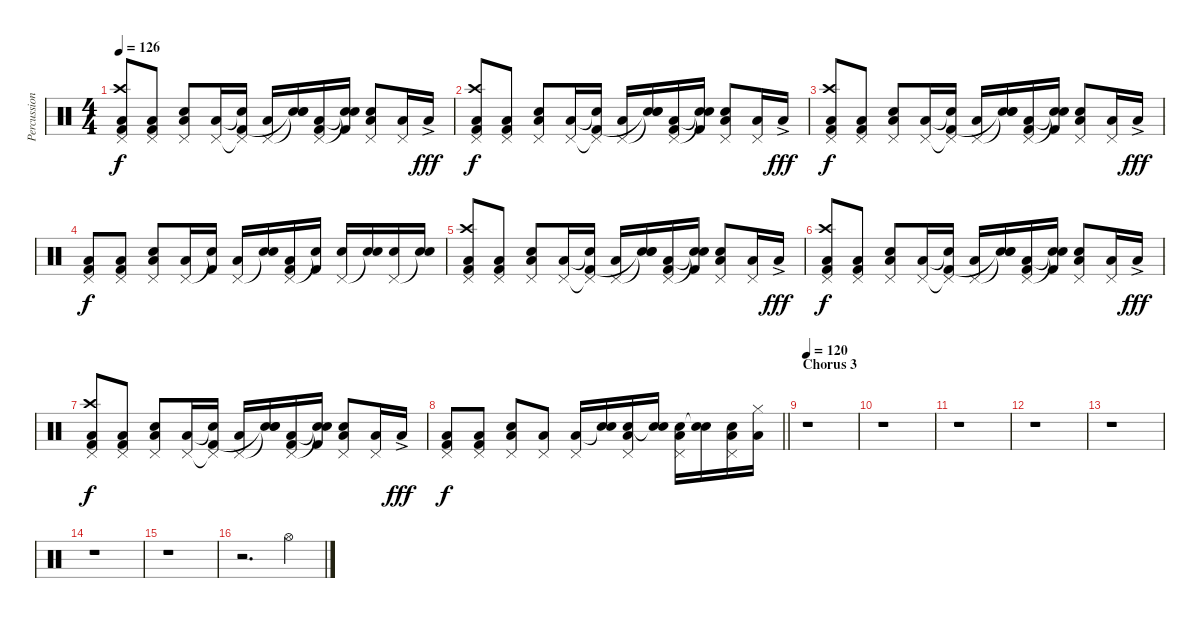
\track ("Percussion" "Percussion") {instrument percussion}
\staff {score}
\articulation defaults
\ts (4 4)
\tempo 126
\clef neutral
\ks c
("Pedal Hi-Hat (hit)" "Crash high (hit)" "Low Floor Tom (hit)" "Kick (hit) 2").8{dy f} ("Pedal Hi-Hat (hit)" "Low Floor Tom (hit)" "Kick (hit) 2").8 ("Pedal Hi-Hat (hit)" "Snare (hit) 2" "Low Floor Tom (hit)").8 ("Pedal Hi-Hat (hit)" "Low Floor Tom (hit)").16 ("Pedal Hi-Hat (hit)"{t} "Snare (hit)"{t} "Kick (hit) 2").16 ("Pedal Hi-Hat (hit)" "Low Floor Tom (hit)").16 ("Snare (hit)"{t} "Snare (hit) 2" "Snare (hit)"{t}).16 ("Pedal Hi-Hat (hit)" "Low Floor Tom (hit)" "Kick (hit) 2").16 ("Snare (hit)"{t} "Snare (hit)"{t} "Kick (hit) 2").16 ("Pedal Hi-Hat (hit)" "Snare (hit) 2" "Low Floor Tom (hit)").8 ("Pedal Hi-Hat (hit)" "Low Floor Tom (hit)").16 "Low Floor Tom (hit)"{ac}.16{dy fff} |
("Pedal Hi-Hat (hit)" "Crash high (hit)" "Low Floor Tom (hit)" "Kick (hit) 2").8{dy f} ("Pedal Hi-Hat (hit)" "Low Floor Tom (hit)" "Kick (hit) 2").8 ("Pedal Hi-Hat (hit)" "Snare (hit) 2" "Low Floor Tom (hit)").8 ("Pedal Hi-Hat (hit)" "Low Floor Tom (hit)").16 ("Pedal Hi-Hat (hit)"{t} "Snare (hit)"{t} "Kick (hit) 2").16 ("Pedal Hi-Hat (hit)" "Low Floor Tom (hit)").16 ("Snare (hit)"{t} "Snare (hit) 2" "Snare (hit)"{t}).16 ("Pedal Hi-Hat (hit)" "Low Floor Tom (hit)" "Kick (hit) 2").16 ("Snare (hit)"{t} "Snare (hit)"{t} "Kick (hit) 2").16 ("Pedal Hi-Hat (hit)" "Snare (hit) 2" "Low Floor Tom (hit)").8 ("Pedal Hi-Hat (hit)" "Low Floor Tom (hit)").16 "Low Floor Tom (hit)"{ac}.16{dy fff} |
("Pedal Hi-Hat (hit)" "Crash high (hit)" "Low Floor Tom (hit)" "Kick (hit) 2").8{dy f} ("Pedal Hi-Hat (hit)" "Low Floor Tom (hit)" "Kick (hit) 2").8 ("Pedal Hi-Hat (hit)" "Snare (hit) 2" "Low Floor Tom (hit)").8 ("Pedal Hi-Hat (hit)" "Low Floor Tom (hit)").16 ("Pedal Hi-Hat (hit)"{t} "Snare (hit)"{t} "Kick (hit) 2").16 ("Pedal Hi-Hat (hit)" "Low Floor Tom (hit)").16 ("Snare (hit)"{t} "Snare (hit) 2" "Snare (hit)"{t}).16 ("Pedal Hi-Hat (hit)" "Low Floor Tom (hit)" "Kick (hit) 2").16 ("Snare (hit)"{t} "Snare (hit)"{t} "Kick (hit) 2").16 ("Pedal Hi-Hat (hit)" "Snare (hit) 2" "Low Floor Tom (hit)").8 ("Pedal Hi-Hat (hit)" "Low Floor Tom (hit)").16 "Low Floor Tom (hit)"{ac}.16{dy fff} |
("Pedal Hi-Hat (hit)" "Low Floor Tom (hit)" "Kick (hit) 2").8{dy f} ("Pedal Hi-Hat (hit)" "Low Floor Tom (hit)" "Kick (hit) 2").8 ("Pedal Hi-Hat (hit)" "Snare (hit) 2" "Low Floor Tom (hit)").8 ("Pedal Hi-Hat (hit)" "Low Floor Tom (hit)").16 ("Snare (hit)"{t} "Kick (hit) 2").16 ("Pedal Hi-Hat (hit)" "Low Floor Tom (hit)").16 ("Snare (hit)"{t} "Snare (hit) 2").16 ("Pedal Hi-Hat (hit)" "Low Floor Tom (hit)" "Kick (hit) 2").16 ("Snare (hit)"{t} "Kick (hit) 2").16 ("Pedal Hi-Hat (hit)" "Snare (hit) 2").16 ("Snare (hit)"{t} "Snare (hit) 2").16 ("Pedal Hi-Hat (hit)" "Snare (hit) 2").16 ("Snare (hit)"{t} "Snare (hit) 2").16 |
("Pedal Hi-Hat (hit)" "Crash high (hit)" "Low Floor Tom (hit)" "Kick (hit) 2").8 ("Pedal Hi-Hat (hit)" "Low Floor Tom (hit)" "Kick (hit) 2").8 ("Pedal Hi-Hat (hit)" "Snare (hit) 2" "Low Floor Tom (hit)").8 ("Pedal Hi-Hat (hit)" "Low Floor Tom (hit)").16 ("Pedal Hi-Hat (hit)"{t} "Snare (hit)"{t} "Kick (hit) 2").16 ("Pedal Hi-Hat (hit)" "Low Floor Tom (hit)").16 ("Snare (hit)"{t} "Snare (hit) 2" "Snare (hit)"{t}).16 ("Pedal Hi-Hat (hit)" "Low Floor Tom (hit)" "Kick (hit) 2").16 ("Snare (hit)"{t} "Snare (hit)"{t} "Kick (hit) 2").16 ("Pedal Hi-Hat (hit)" "Snare (hit) 2" "Low Floor Tom (hit)").8 ("Pedal Hi-Hat (hit)" "Low Floor Tom (hit)").16 "Low Floor Tom (hit)"{ac}.16{dy fff} |
("Pedal Hi-Hat (hit)" "Crash high (hit)" "Low Floor Tom (hit)" "Kick (hit) 2").8{dy f} ("Pedal Hi-Hat (hit)" "Low Floor Tom (hit)" "Kick (hit) 2").8 ("Pedal Hi-Hat (hit)" "Snare (hit) 2" "Low Floor Tom (hit)").8 ("Pedal Hi-Hat (hit)" "Low Floor Tom (hit)").16 ("Pedal Hi-Hat (hit)"{t} "Snare (hit)"{t} "Kick (hit) 2").16 ("Pedal Hi-Hat (hit)" "Low Floor Tom (hit)").16 ("Snare (hit)"{t} "Snare (hit) 2" "Snare (hit)"{t}).16 ("Pedal Hi-Hat (hit)" "Low Floor Tom (hit)" "Kick (hit) 2").16 ("Snare (hit)"{t} "Snare (hit)"{t} "Kick (hit) 2").16 ("Pedal Hi-Hat (hit)" "Snare (hit) 2" "Low Floor Tom (hit)").8 ("Pedal Hi-Hat (hit)" "Low Floor Tom (hit)").16 "Low Floor Tom (hit)"{ac}.16{dy fff} |
("Pedal Hi-Hat (hit)" "Crash high (hit)" "Low Floor Tom (hit)" "Kick (hit) 2").8{dy f} ("Pedal Hi-Hat (hit)" "Low Floor Tom (hit)" "Kick (hit) 2").8 ("Pedal Hi-Hat (hit)" "Snare (hit) 2" "Low Floor Tom (hit)").8 ("Pedal Hi-Hat (hit)" "Low Floor Tom (hit)").16 ("Pedal Hi-Hat (hit)"{t} "Snare (hit)"{t} "Kick (hit) 2").16 ("Pedal Hi-Hat (hit)" "Low Floor Tom (hit)").16 ("Snare (hit)"{t} "Snare (hit) 2" "Snare (hit)"{t}).16 ("Pedal Hi-Hat (hit)" "Low Floor Tom (hit)" "Kick (hit) 2").16 ("Snare (hit)"{t} "Snare (hit)"{t} "Kick (hit) 2").16 ("Pedal Hi-Hat (hit)" "Snare (hit) 2" "Low Floor Tom (hit)").8 ("Pedal Hi-Hat (hit)" "Low Floor Tom (hit)").16 "Low Floor Tom (hit)"{ac}.16{dy fff} |
\barLineRight lightlight
("Pedal Hi-Hat (hit)" "Low Floor Tom (hit)" "Kick (hit) 2").8{dy f} ("Pedal Hi-Hat (hit)" "Low Floor Tom (hit)" "Kick (hit) 2").8 ("Pedal Hi-Hat (hit)" "Snare (hit) 2" "Low Floor Tom (hit)").8 ("Pedal Hi-Hat (hit)" "Low Floor Tom (hit)").8 ("Pedal Hi-Hat (hit)" "Low Floor Tom (hit)").16 ("Snare (hit) 2" "Snare (hit)"{t}).16 ("Pedal Hi-Hat (hit)" "Snare (hit) 2" "Low Floor Tom (hit)").16 ("Snare (hit) 2" "Snare (hit)"{t}).16 ("Pedal Hi-Hat (hit)" "Snare (hit) 2" "Low Floor Tom (hit)").16 ("Snare (hit) 2" "Snare (hit)"{t}).16 ("Pedal Hi-Hat (hit)" "Snare (hit) 2" "Low Floor Tom (hit)").16 ("Hi-Hat (closed)" "Low Floor Tom (hit)").16 |
\section ("" "Chorus 3")
\tempo 120
r.1 |
r.1 |
r.1 |
r.1 |
r.1 |
r.1 |
r.1 |
r.2{d} "Hi-Hat (open)".4
